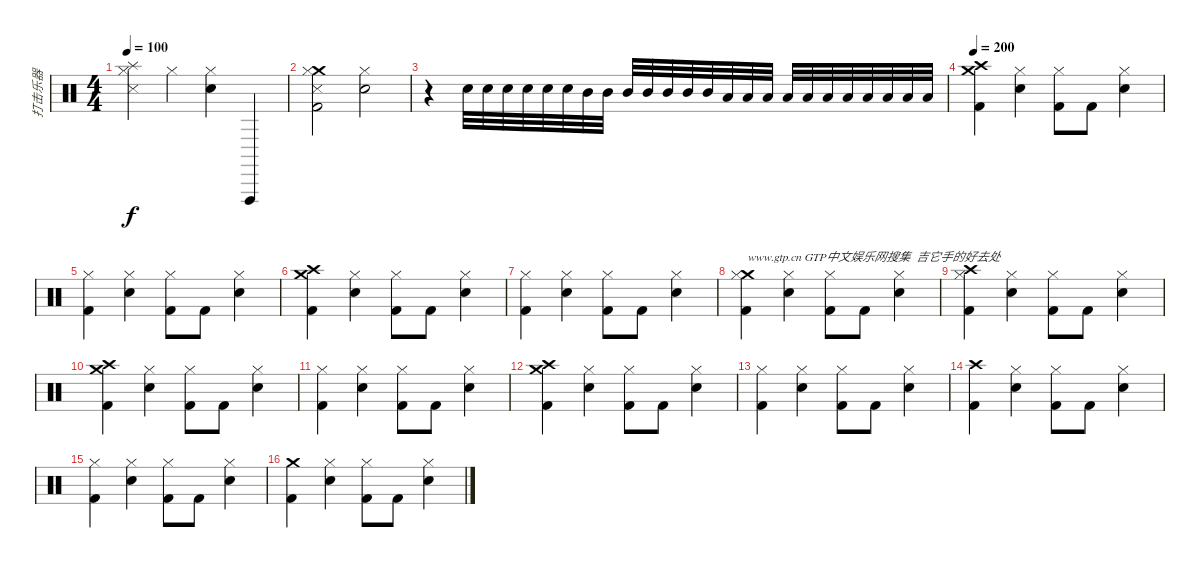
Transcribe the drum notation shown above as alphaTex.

\track ("打击乐器" "打击乐器") {instrument percussion}
\staff {score}
\articulation defaults
\ts (4 4)
\tempo 100
\clef neutral
\ks c
("Splash (hit)" "Hi-Hat (closed)" "Snare (side stick) 3").4{dy f} "Hi-Hat (closed)".4 ("Hi-Hat (closed)" "Metronome (bell)").4 "Vibraslap (hit)".4 |
("Crash medium (hit)" "Hi-Hat (closed)" "Snare (side stick) 3" "Kick (hit) 2").2 ("Hi-Hat (closed)" "Snare (hit) 2").2 |
r.4 "Snare (hit) 2".32 "Snare (hit) 2".32 "Snare (hit) 2".32 "Snare (hit) 2".32 "Snare (hit) 2".32 "Snare (hit) 2".32 "Mid Tom (hit)".32 "Mid Tom (hit)".32 "Mid Tom (hit)".32 "Mid Tom (hit)".32 "Mid Tom (hit)".32 "Mid Tom (hit)".32 "Mid Tom (hit)".32 "Low Tom (hit)".32 "Low Tom (hit)".32 "Low Tom (hit)".32 "Low Tom (hit)".32 "Low Tom (hit)".32 "Low Tom (hit)".32 "Low Tom (hit)".32 "Low Floor Tom (hit)".32 "Low Floor Tom (hit)".32 "Low Floor Tom (hit)".32 "Low Floor Tom (hit)".32 |
\tempo 200
("Crash medium (hit)" "Crash high (hit)" "Kick (hit) 2").4 ("Hi-Hat (closed)" "Snare (hit) 2").4 ("Hi-Hat (closed)" "Kick (hit) 2").8 "Kick (hit) 2".8 ("Hi-Hat (closed)" "Snare (hit) 2").4 |
("Hi-Hat (closed)" "Kick (hit) 2").4 ("Hi-Hat (closed)" "Snare (hit) 2").4 ("Hi-Hat (closed)" "Kick (hit) 2").8 "Kick (hit) 2".8 ("Hi-Hat (closed)" "Snare (hit) 2").4 |
("Crash medium (hit)" "Crash high (hit)" "Kick (hit) 2").4 ("Hi-Hat (closed)" "Snare (hit) 2").4 ("Hi-Hat (closed)" "Kick (hit) 2").8 "Kick (hit) 2".8 ("Hi-Hat (closed)" "Snare (hit) 2").4 |
("Hi-Hat (closed)" "Kick (hit) 2").4 ("Hi-Hat (closed)" "Snare (hit) 2").4 ("Hi-Hat (closed)" "Kick (hit) 2").8 "Kick (hit) 2".8 ("Hi-Hat (closed)" "Snare (hit) 2").4 |
("Crash medium (hit)" "Hi-Hat (closed)" "Kick (hit) 2").4{txt "www.gtp.cn GTP中文娱乐网搜集  吉它手的好去处"} ("Hi-Hat (closed)" "Snare (hit) 2").4 ("Hi-Hat (closed)" "Kick (hit) 2").8 "Kick (hit) 2".8 ("Hi-Hat (closed)" "Snare (hit) 2").4 |
("Crash high (hit)" "Hi-Hat (closed)" "Kick (hit) 2").4 ("Hi-Hat (closed)" "Snare (hit) 2").4 ("Hi-Hat (closed)" "Kick (hit) 2").8 "Kick (hit) 2".8 ("Hi-Hat (closed)" "Snare (hit) 2").4 |
("Crash medium (hit)" "Crash high (hit)" "Kick (hit) 2").4 ("Hi-Hat (closed)" "Snare (hit) 2").4 ("Hi-Hat (closed)" "Kick (hit) 2").8 "Kick (hit) 2".8 ("Hi-Hat (closed)" "Snare (hit) 2").4 |
("Hi-Hat (closed)" "Kick (hit) 2").4 ("Hi-Hat (closed)" "Snare (hit) 2").4 ("Hi-Hat (closed)" "Kick (hit) 2").8 "Kick (hit) 2".8 ("Hi-Hat (closed)" "Snare (hit) 2").4 |
("Crash medium (hit)" "Crash high (hit)" "Kick (hit) 2").4 ("Hi-Hat (closed)" "Snare (hit) 2").4 ("Hi-Hat (closed)" "Kick (hit) 2").8 "Kick (hit) 2".8 ("Hi-Hat (closed)" "Snare (hit) 2").4 |
("Hi-Hat (closed)" "Kick (hit) 2").4 ("Hi-Hat (closed)" "Snare (hit) 2").4 ("Hi-Hat (closed)" "Kick (hit) 2").8 "Kick (hit) 2".8 ("Hi-Hat (closed)" "Snare (hit) 2").4 |
("Crash high (hit)" "Kick (hit) 2").4 ("Hi-Hat (closed)" "Snare (hit) 2").4 ("Hi-Hat (closed)" "Kick (hit) 2").8 "Kick (hit) 2".8 ("Hi-Hat (closed)" "Snare (hit) 2").4 |
("Hi-Hat (closed)" "Kick (hit) 2").4 ("Hi-Hat (closed)" "Snare (hit) 2").4 ("Hi-Hat (closed)" "Kick (hit) 2").8 "Kick (hit) 2".8 ("Hi-Hat (closed)" "Snare (hit) 2").4 |
("Crash medium (hit)" "Kick (hit) 2").4 ("Hi-Hat (closed)" "Snare (hit) 2").4 ("Hi-Hat (closed)" "Kick (hit) 2").8 "Kick (hit) 2".8 ("Hi-Hat (closed)" "Snare (hit) 2").4
